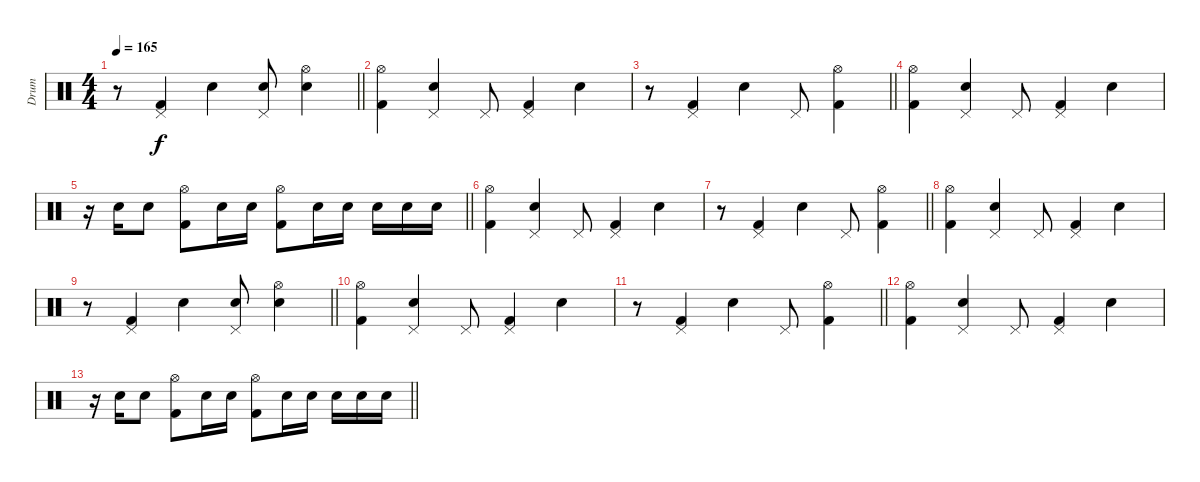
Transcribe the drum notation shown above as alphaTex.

\track ("Drum" "Drum") {instrument percussion}
\staff {score}
\articulation defaults
\ts (4 4)
\tempo 165
\clef neutral
\barLineRight lightlight
\ks c
r.8{dy f} ("Kick (hit) 2" "Pedal Hi-Hat (hit)").4 "Electric Snare (hit)".4 ("Electric Snare (hit)" "Pedal Hi-Hat (hit)").8 ("Electric Snare (hit)" "Hi-Hat (open)").4 |
("Kick (hit) 2" "Hi-Hat (open)").4 ("Electric Snare (hit)" "Pedal Hi-Hat (hit)").4 "Pedal Hi-Hat (hit)".8 ("Kick (hit) 2" "Pedal Hi-Hat (hit)").4 "Electric Snare (hit)".4 |
\barLineRight lightlight
r.8 ("Kick (hit) 2" "Pedal Hi-Hat (hit)").4 "Electric Snare (hit)".4 "Pedal Hi-Hat (hit)".8 ("Kick (hit) 2" "Hi-Hat (open)").4 |
("Kick (hit) 2" "Hi-Hat (open)").4 ("Electric Snare (hit)" "Pedal Hi-Hat (hit)").4 "Pedal Hi-Hat (hit)".8 ("Kick (hit) 2" "Pedal Hi-Hat (hit)").4 "Electric Snare (hit)".4 |
\barLineRight lightlight
r.16 "Electric Snare (hit)".16{volume 0} "Electric Snare (hit)".8 ("Kick (hit) 2" "Hi-Hat (open)").8 "Electric Snare (hit)".16 "Electric Snare (hit)".16 ("Kick (hit) 2" "Hi-Hat (open)").8 "Electric Snare (hit)".16 "Electric Snare (hit)".16 "Electric Snare (hit)".16 "Electric Snare (hit)".16 "Electric Snare (hit)".16 |
("Kick (hit) 2" "Hi-Hat (open)").4 ("Electric Snare (hit)" "Pedal Hi-Hat (hit)").4 "Pedal Hi-Hat (hit)".8 ("Kick (hit) 2" "Pedal Hi-Hat (hit)").4 "Electric Snare (hit)".4 |
\barLineRight lightlight
r.8 ("Kick (hit) 2" "Pedal Hi-Hat (hit)").4 "Electric Snare (hit)".4 "Pedal Hi-Hat (hit)".8 ("Kick (hit) 2" "Hi-Hat (open)").4 |
("Kick (hit) 2" "Hi-Hat (open)").4 ("Electric Snare (hit)" "Pedal Hi-Hat (hit)").4 "Pedal Hi-Hat (hit)".8 ("Kick (hit) 2" "Pedal Hi-Hat (hit)").4 "Electric Snare (hit)".4 |
\barLineRight lightlight
r.8 ("Kick (hit) 2" "Pedal Hi-Hat (hit)").4 "Electric Snare (hit)".4 ("Electric Snare (hit)" "Pedal Hi-Hat (hit)").8 ("Electric Snare (hit)" "Hi-Hat (open)").4 |
("Kick (hit) 2" "Hi-Hat (open)").4 ("Electric Snare (hit)" "Pedal Hi-Hat (hit)").4 "Pedal Hi-Hat (hit)".8 ("Kick (hit) 2" "Pedal Hi-Hat (hit)").4 "Electric Snare (hit)".4 |
\barLineRight lightlight
r.8 ("Kick (hit) 2" "Pedal Hi-Hat (hit)").4 "Electric Snare (hit)".4 "Pedal Hi-Hat (hit)".8 ("Kick (hit) 2" "Hi-Hat (open)").4 |
("Kick (hit) 2" "Hi-Hat (open)").4 ("Electric Snare (hit)" "Pedal Hi-Hat (hit)").4 "Pedal Hi-Hat (hit)".8 ("Kick (hit) 2" "Pedal Hi-Hat (hit)").4 "Electric Snare (hit)".4 |
\barLineRight lightlight
r.16 "Electric Snare (hit)".16 "Electric Snare (hit)".8 ("Kick (hit) 2" "Hi-Hat (open)").8 "Electric Snare (hit)".16 "Electric Snare (hit)".16 ("Kick (hit) 2" "Hi-Hat (open)").8 "Electric Snare (hit)".16 "Electric Snare (hit)".16 "Electric Snare (hit)".16 "Electric Snare (hit)".16 "Electric Snare (hit)".16
